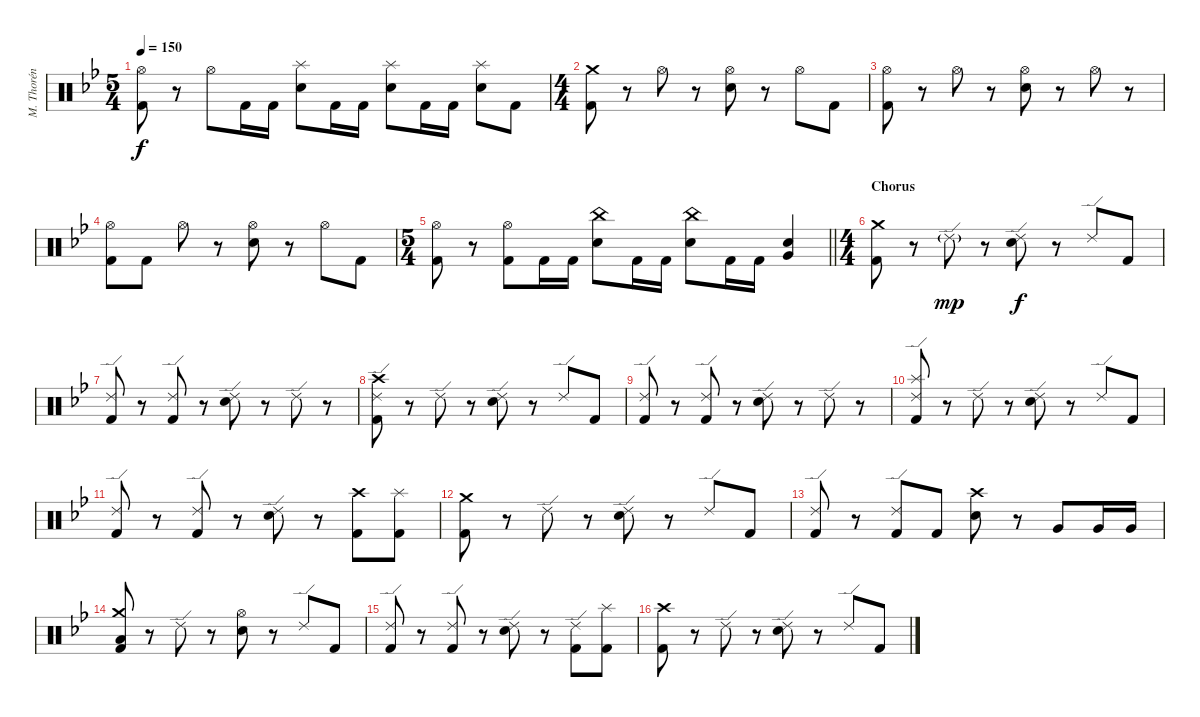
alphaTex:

\track ("M. Thorén (Drums)" "M. Thorén ") {instrument percussion}
\staff {score}
\articulation defaults
\ts (5 4)
\tempo 150
\clef neutral
\ks gminor
("Hi-Hat (open)" "Kick (hit) 2").8{dy f} r.8 "Hi-Hat (open)".8 "Kick (hit) 2".16 "Kick (hit) 2".16 ("Splash (hit)" "Electric Snare (hit)").8 "Kick (hit) 2".16 "Kick (hit) 2".16 ("Splash (hit)" "Electric Snare (hit)").8 "Kick (hit) 2".16 "Kick (hit) 2".16 ("Splash (hit)" "Electric Snare (hit)").8 "Kick (hit) 2".8 |
\ts (4 4)
("Crash medium (hit)" "Kick (hit) 2").8 r.8 "Hi-Hat (open)".8 r.8 ("Hi-Hat (open)" "Electric Snare (hit)").8 r.8 "Hi-Hat (open)".8 "Kick (hit) 2".8 |
("Hi-Hat (open)" "Kick (hit) 2").8 r.8 "Hi-Hat (open)".8 r.8 ("Hi-Hat (open)" "Electric Snare (hit)").8 r.8 "Hi-Hat (open)".8 r.8 |
("Hi-Hat (open)" "Kick (hit) 2").8 "Kick (hit) 2".8 "Hi-Hat (open)".8 r.8 ("Hi-Hat (open)" "Electric Snare (hit)").8 r.8 "Hi-Hat (open)".8 "Kick (hit) 2".8 |
\ts (5 4)
\barLineRight lightlight
("Hi-Hat (open)" "Kick (hit) 2").8 r.8 ("Hi-Hat (open)" "Kick (hit) 2").8 "Kick (hit) 2".16 "Kick (hit) 2".16 ("China (hit)" "Electric Snare (hit)").8 "Kick (hit) 2".16 "Kick (hit) 2".16 ("China (hit)" "Electric Snare (hit)").8 "Kick (hit) 2".16 "Kick (hit) 2".16 ("Electric Snare (hit)" "Very Low Tom (hit)").4 |
\ts (4 4)
\section ("" "Chorus")
("Crash medium (hit)" "Kick (hit) 2").8 r.8 "Ride (edge) 2"{g}.8{dy mp} r.8 ("Ride (edge) 2" "Electric Snare (hit)").8{dy f} r.8 "Ride (edge) 2".8 "Kick (hit) 2".8 |
("Ride (edge) 2" "Kick (hit) 2").8 r.8 ("Ride (edge) 2" "Kick (hit) 2").8 r.8 ("Ride (edge) 2" "Electric Snare (hit)").8 r.8 "Ride (edge) 2".8 r.8 |
("Crash high (hit)" "Ride (edge) 2" "Kick (hit) 2").8 r.8 "Ride (edge) 2".8 r.8 ("Ride (edge) 2" "Electric Snare (hit)").8 r.8 "Ride (edge) 2".8 "Kick (hit) 2".8 |
("Ride (edge) 2" "Kick (hit) 2").8 r.8 ("Ride (edge) 2" "Kick (hit) 2").8 r.8 ("Ride (edge) 2" "Electric Snare (hit)").8 r.8 "Ride (edge) 2".8 r.8 |
("Splash (hit)" "Ride (edge) 2" "Kick (hit) 2").8 r.8 "Ride (edge) 2".8 r.8 ("Ride (edge) 2" "Electric Snare (hit)").8 r.8 "Ride (edge) 2".8 "Kick (hit) 2".8 |
("Ride (edge) 2" "Kick (hit) 2").8 r.8 ("Ride (edge) 2" "Kick (hit) 2").8 r.8 ("Ride (edge) 2" "Electric Snare (hit)").8 r.8 ("Crash high (hit)" "Kick (hit) 2").8 ("Splash (hit)" "Kick (hit) 2").8 |
("Crash medium (hit)" "Kick (hit) 2").8 r.8 "Ride (edge) 2".8 r.8 ("Ride (edge) 2" "Electric Snare (hit)").8 r.8 "Ride (edge) 2".8 "Kick (hit) 2".8 |
("Ride (edge) 2" "Kick (hit) 2").8 r.8 ("Ride (edge) 2" "Kick (hit) 2").8 "Kick (hit) 2".8 ("Crash high (hit)" "Electric Snare (hit)").8 r.8 "Very Low Tom (hit)".8 "Very Low Tom (hit)".16 "Very Low Tom (hit)".16 |
("Crash medium (hit)" "Low Floor Tom (hit)" "Kick (hit) 2").8 r.8 "Ride (edge) 2".8 r.8 ("Hi-Hat (open)" "Electric Snare (hit)").8 r.8 "Ride (edge) 2".8 "Kick (hit) 2".8 |
("Ride (edge) 2" "Kick (hit) 2").8 r.8 ("Ride (edge) 2" "Kick (hit) 2").8 r.8 ("Ride (edge) 2" "Electric Snare (hit)").8 r.8 ("Ride (edge) 2" "Kick (hit) 2").8 ("Splash (hit)" "Kick (hit) 2").8 |
("Crash high (hit)" "Kick (hit) 2").8 r.8 "Ride (edge) 2".8 r.8 ("Ride (edge) 2" "Electric Snare (hit)").8 r.8 "Ride (edge) 2".8 "Kick (hit) 2".8
